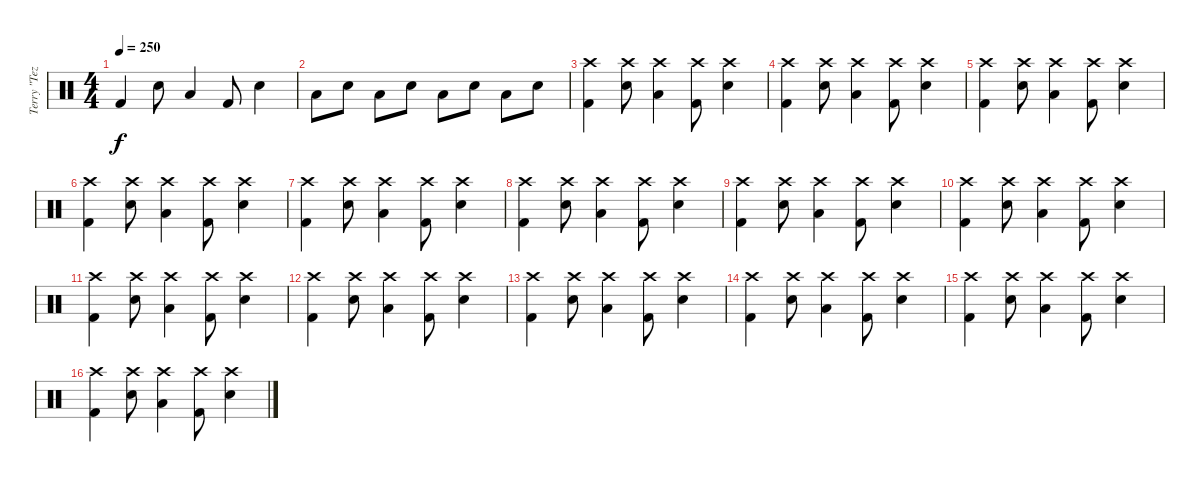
\track ("Terry \"Tezz\" Roberts" "Terry \"Tez") {instrument percussion}
\staff {score}
\articulation defaults
\ts (4 4)
\tempo 250
\clef neutral
\ks c "Kick (hit) 2".4{dy f} "Snare (hit) 2".8 "Low Tom (hit)".4 "Kick (hit) 2".8 "Snare (hit) 2".4
|
"Low Tom (hit)".8 "Snare (hit) 2".8 "Low Tom (hit)".8 "Snare (hit) 2".8 "Low Tom (hit)".8 "Snare (hit) 2".8 "Low Tom (hit)".8 "Snare (hit) 2".8 |
("Kick (hit) 2" "Crash high (hit)").4 ("Snare (hit) 2" "Crash high (hit)").8 ("Low Tom (hit)" "Crash high (hit)").4 ("Kick (hit) 2" "Crash high (hit)").8 ("Snare (hit) 2" "Crash high (hit)").4 |
("Kick (hit) 2" "Crash high (hit)").4 ("Snare (hit) 2" "Crash high (hit)").8 ("Low Tom (hit)" "Crash high (hit)").4 ("Kick (hit) 2" "Crash high (hit)").8 ("Snare (hit) 2" "Crash high (hit)").4 |
("Kick (hit) 2" "Crash high (hit)").4 ("Snare (hit) 2" "Crash high (hit)").8 ("Low Tom (hit)" "Crash high (hit)").4 ("Kick (hit) 2" "Crash high (hit)").8 ("Snare (hit) 2" "Crash high (hit)").4 |
("Kick (hit) 2" "Crash high (hit)").4 ("Snare (hit) 2" "Crash high (hit)").8 ("Low Tom (hit)" "Crash high (hit)").4 ("Kick (hit) 2" "Crash high (hit)").8 ("Snare (hit) 2" "Crash high (hit)").4 |
("Kick (hit) 2" "Crash high (hit)").4 ("Snare (hit) 2" "Crash high (hit)").8 ("Low Tom (hit)" "Crash high (hit)").4 ("Kick (hit) 2" "Crash high (hit)").8 ("Snare (hit) 2" "Crash high (hit)").4 |
("Kick (hit) 2" "Crash high (hit)").4 ("Snare (hit) 2" "Crash high (hit)").8 ("Low Tom (hit)" "Crash high (hit)").4 ("Kick (hit) 2" "Crash high (hit)").8 ("Snare (hit) 2" "Crash high (hit)").4 |
("Kick (hit) 2" "Crash high (hit)").4 ("Snare (hit) 2" "Crash high (hit)").8 ("Low Tom (hit)" "Crash high (hit)").4 ("Kick (hit) 2" "Crash high (hit)").8 ("Snare (hit) 2" "Crash high (hit)").4 |
("Kick (hit) 2" "Crash high (hit)").4 ("Snare (hit) 2" "Crash high (hit)").8 ("Low Tom (hit)" "Crash high (hit)").4 ("Kick (hit) 2" "Crash high (hit)").8 ("Snare (hit) 2" "Crash high (hit)").4 |
("Kick (hit) 2" "Crash high (hit)").4 ("Snare (hit) 2" "Crash high (hit)").8 ("Low Tom (hit)" "Crash high (hit)").4 ("Kick (hit) 2" "Crash high (hit)").8 ("Snare (hit) 2" "Crash high (hit)").4 |
("Kick (hit) 2" "Crash high (hit)").4 ("Snare (hit) 2" "Crash high (hit)").8 ("Low Tom (hit)" "Crash high (hit)").4 ("Kick (hit) 2" "Crash high (hit)").8 ("Snare (hit) 2" "Crash high (hit)").4 |
("Kick (hit) 2" "Crash high (hit)").4 ("Snare (hit) 2" "Crash high (hit)").8 ("Low Tom (hit)" "Crash high (hit)").4 ("Kick (hit) 2" "Crash high (hit)").8 ("Snare (hit) 2" "Crash high (hit)").4 |
("Kick (hit) 2" "Crash high (hit)").4 ("Snare (hit) 2" "Crash high (hit)").8 ("Low Tom (hit)" "Crash high (hit)").4 ("Kick (hit) 2" "Crash high (hit)").8 ("Snare (hit) 2" "Crash high (hit)").4 |
("Kick (hit) 2" "Crash high (hit)").4 ("Snare (hit) 2" "Crash high (hit)").8 ("Low Tom (hit)" "Crash high (hit)").4 ("Kick (hit) 2" "Crash high (hit)").8 ("Snare (hit) 2" "Crash high (hit)").4 |
("Kick (hit) 2" "Crash high (hit)").4 ("Snare (hit) 2" "Crash high (hit)").8 ("Low Tom (hit)" "Crash high (hit)").4 ("Kick (hit) 2" "Crash high (hit)").8 ("Snare (hit) 2" "Crash high (hit)").4
